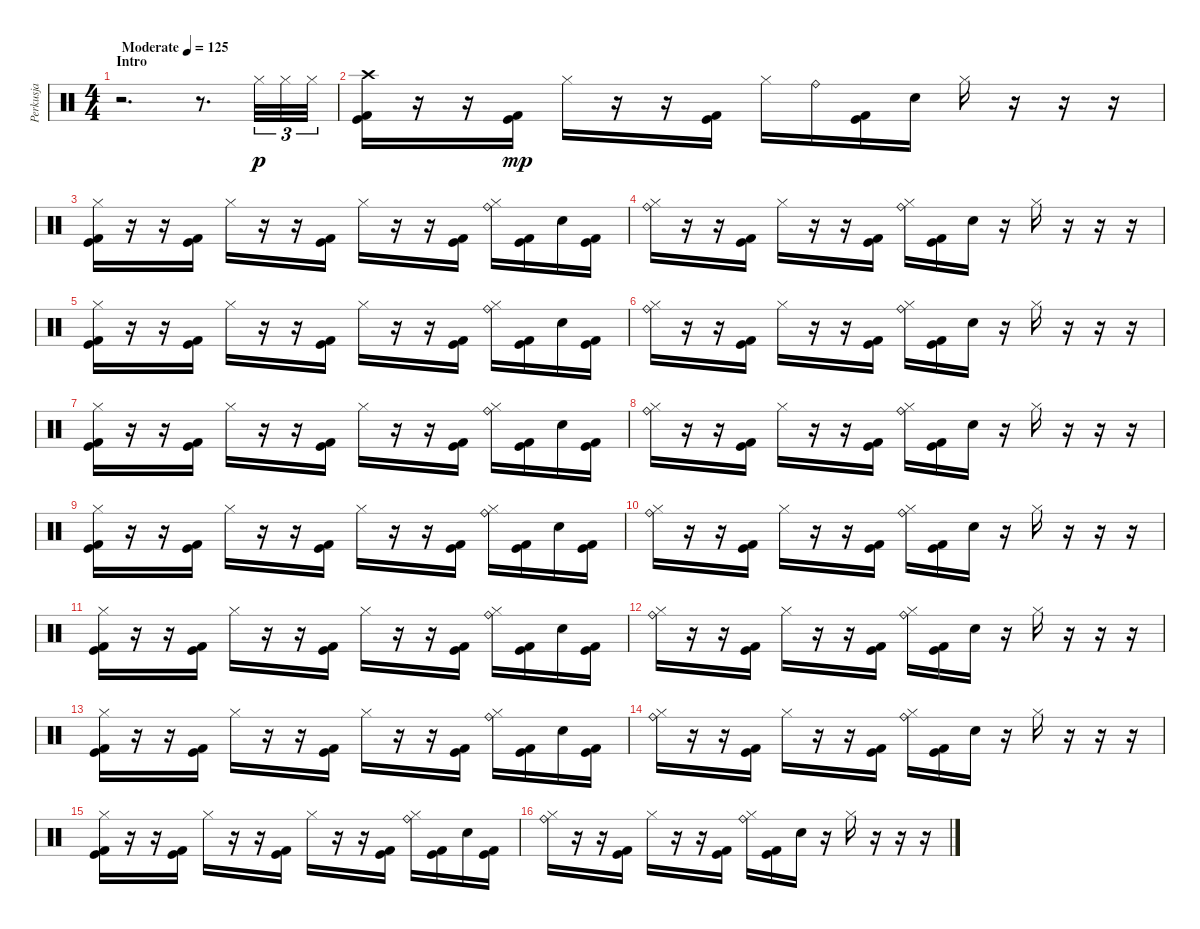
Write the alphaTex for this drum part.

\track ("Perkusja" "Perkusja") {instrument percussion}
\staff {score}
\articulation defaults
\ts (4 4)
\section ("" "Intro")
\tempo (125 "Moderate")
\clef neutral
\ks c
r.2{d dy p} r.8{d} "Hi-Hat (closed)".32{tu (3 2)} "Hi-Hat (closed)".32{tu (3 2)} "Hi-Hat (closed)".32{tu (3 2)} |
("Crash high (hit)" "Kick (hit)" "Kick (hit) 2").16 r.16 r.16 ("Kick (hit)" "Kick (hit) 2").16{dy mp} "Hi-Hat (closed)".16 r.16 r.16 ("Kick (hit)" "Kick (hit) 2").16 "Hi-Hat (closed)".16 "Ride (bell)".16 ("Kick (hit)" "Kick (hit) 2").16 "Electric Snare (hit)".16 "Hi-Hat (closed)".16 r.16 r.16 r.16 |
("Hi-Hat (closed)" "Kick (hit)" "Kick (hit) 2").16 r.16 r.16 ("Kick (hit)" "Kick (hit) 2").16 "Hi-Hat (closed)".16 r.16 r.16 ("Kick (hit)" "Kick (hit) 2").16 "Hi-Hat (closed)".16 r.16 r.16 ("Kick (hit)" "Kick (hit) 2").16 ("Hi-Hat (closed)" "Ride (bell)").16 ("Kick (hit)" "Kick (hit) 2").16 "Electric Snare (hit)".16 ("Kick (hit)" "Kick (hit) 2").16 |
("Hi-Hat (closed)" "Ride (bell)").16 r.16 r.16 ("Kick (hit)" "Kick (hit) 2").16 "Hi-Hat (closed)".16 r.16 r.16 ("Kick (hit)" "Kick (hit) 2").16 ("Hi-Hat (closed)" "Ride (bell)").16 ("Kick (hit)" "Kick (hit) 2").16 "Electric Snare (hit)".16 r.16 "Hi-Hat (closed)".16 r.16 r.16 r.16 |
("Hi-Hat (closed)" "Kick (hit)" "Kick (hit) 2").16 r.16 r.16 ("Kick (hit)" "Kick (hit) 2").16 "Hi-Hat (closed)".16 r.16 r.16 ("Kick (hit)" "Kick (hit) 2").16 "Hi-Hat (closed)".16 r.16 r.16 ("Kick (hit)" "Kick (hit) 2").16 ("Hi-Hat (closed)" "Ride (bell)").16 ("Kick (hit)" "Kick (hit) 2").16 "Electric Snare (hit)".16 ("Kick (hit)" "Kick (hit) 2").16 |
("Hi-Hat (closed)" "Ride (bell)").16 r.16 r.16 ("Kick (hit)" "Kick (hit) 2").16 "Hi-Hat (closed)".16 r.16 r.16 ("Kick (hit)" "Kick (hit) 2").16 ("Hi-Hat (closed)" "Ride (bell)").16 ("Kick (hit)" "Kick (hit) 2").16 "Electric Snare (hit)".16 r.16 "Hi-Hat (closed)".16 r.16 r.16 r.16 |
("Hi-Hat (closed)" "Kick (hit)" "Kick (hit) 2").16 r.16 r.16 ("Kick (hit)" "Kick (hit) 2").16 "Hi-Hat (closed)".16 r.16 r.16 ("Kick (hit)" "Kick (hit) 2").16 "Hi-Hat (closed)".16 r.16 r.16 ("Kick (hit)" "Kick (hit) 2").16 ("Hi-Hat (closed)" "Ride (bell)").16 ("Kick (hit)" "Kick (hit) 2").16 "Electric Snare (hit)".16 ("Kick (hit)" "Kick (hit) 2").16 |
("Hi-Hat (closed)" "Ride (bell)").16 r.16 r.16 ("Kick (hit)" "Kick (hit) 2").16 "Hi-Hat (closed)".16 r.16 r.16 ("Kick (hit)" "Kick (hit) 2").16 ("Hi-Hat (closed)" "Ride (bell)").16 ("Kick (hit)" "Kick (hit) 2").16 "Electric Snare (hit)".16 r.16 "Hi-Hat (closed)".16 r.16 r.16 r.16 |
("Hi-Hat (closed)" "Kick (hit)" "Kick (hit) 2").16 r.16 r.16 ("Kick (hit)" "Kick (hit) 2").16 "Hi-Hat (closed)".16 r.16 r.16 ("Kick (hit)" "Kick (hit) 2").16 "Hi-Hat (closed)".16 r.16 r.16 ("Kick (hit)" "Kick (hit) 2").16 ("Hi-Hat (closed)" "Ride (bell)").16 ("Kick (hit)" "Kick (hit) 2").16 "Electric Snare (hit)".16 ("Kick (hit)" "Kick (hit) 2").16 |
("Hi-Hat (closed)" "Ride (bell)").16 r.16 r.16 ("Kick (hit)" "Kick (hit) 2").16 "Hi-Hat (closed)".16 r.16 r.16 ("Kick (hit)" "Kick (hit) 2").16 ("Hi-Hat (closed)" "Ride (bell)").16 ("Kick (hit)" "Kick (hit) 2").16 "Electric Snare (hit)".16 r.16 "Hi-Hat (closed)".16 r.16 r.16 r.16 |
("Hi-Hat (closed)" "Kick (hit)" "Kick (hit) 2").16 r.16 r.16 ("Kick (hit)" "Kick (hit) 2").16 "Hi-Hat (closed)".16 r.16 r.16 ("Kick (hit)" "Kick (hit) 2").16 "Hi-Hat (closed)".16 r.16 r.16 ("Kick (hit)" "Kick (hit) 2").16 ("Hi-Hat (closed)" "Ride (bell)").16 ("Kick (hit)" "Kick (hit) 2").16 "Electric Snare (hit)".16 ("Kick (hit)" "Kick (hit) 2").16 |
("Hi-Hat (closed)" "Ride (bell)").16 r.16 r.16 ("Kick (hit)" "Kick (hit) 2").16 "Hi-Hat (closed)".16 r.16 r.16 ("Kick (hit)" "Kick (hit) 2").16 ("Hi-Hat (closed)" "Ride (bell)").16 ("Kick (hit)" "Kick (hit) 2").16 "Electric Snare (hit)".16 r.16 "Hi-Hat (closed)".16 r.16 r.16 r.16 |
("Hi-Hat (closed)" "Kick (hit)" "Kick (hit) 2").16 r.16 r.16 ("Kick (hit)" "Kick (hit) 2").16 "Hi-Hat (closed)".16 r.16 r.16 ("Kick (hit)" "Kick (hit) 2").16 "Hi-Hat (closed)".16 r.16 r.16 ("Kick (hit)" "Kick (hit) 2").16 ("Hi-Hat (closed)" "Ride (bell)").16 ("Kick (hit)" "Kick (hit) 2").16 "Electric Snare (hit)".16 ("Kick (hit)" "Kick (hit) 2").16 |
("Hi-Hat (closed)" "Ride (bell)").16 r.16 r.16 ("Kick (hit)" "Kick (hit) 2").16 "Hi-Hat (closed)".16 r.16 r.16 ("Kick (hit)" "Kick (hit) 2").16 ("Hi-Hat (closed)" "Ride (bell)").16 ("Kick (hit)" "Kick (hit) 2").16 "Electric Snare (hit)".16 r.16 "Hi-Hat (closed)".16 r.16 r.16 r.16 |
("Hi-Hat (closed)" "Kick (hit)" "Kick (hit) 2").16 r.16 r.16 ("Kick (hit)" "Kick (hit) 2").16 "Hi-Hat (closed)".16 r.16 r.16 ("Kick (hit)" "Kick (hit) 2").16 "Hi-Hat (closed)".16 r.16 r.16 ("Kick (hit)" "Kick (hit) 2").16 ("Hi-Hat (closed)" "Ride (bell)").16 ("Kick (hit)" "Kick (hit) 2").16 "Electric Snare (hit)".16 ("Kick (hit)" "Kick (hit) 2").16 |
("Hi-Hat (closed)" "Ride (bell)").16 r.16 r.16 ("Kick (hit)" "Kick (hit) 2").16 "Hi-Hat (closed)".16 r.16 r.16 ("Kick (hit)" "Kick (hit) 2").16 ("Hi-Hat (closed)" "Ride (bell)").16 ("Kick (hit)" "Kick (hit) 2").16 "Electric Snare (hit)".16 r.16 "Hi-Hat (closed)".16 r.16 r.16 r.16
